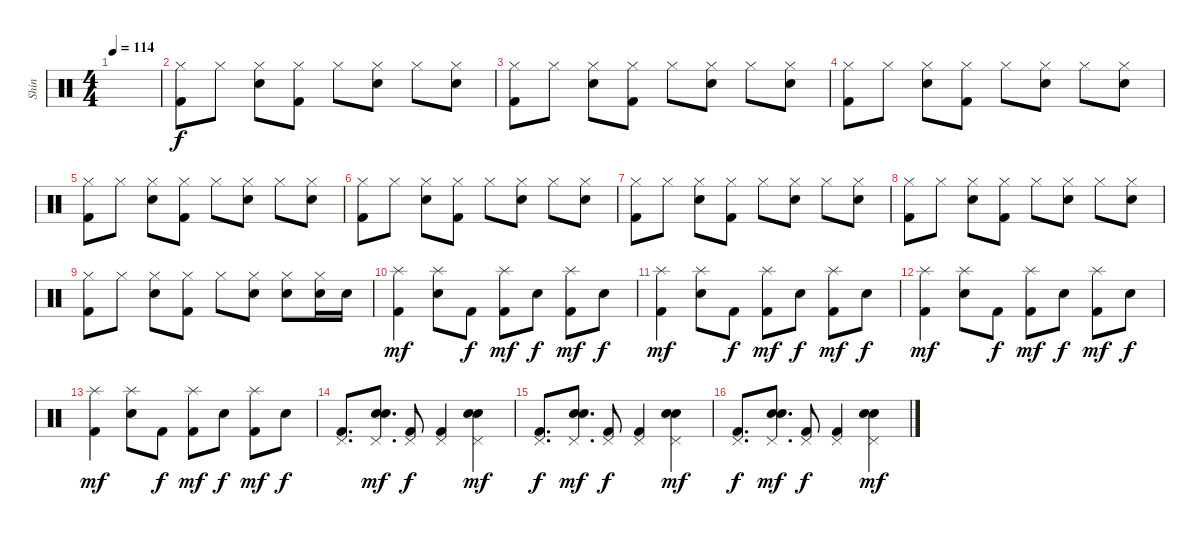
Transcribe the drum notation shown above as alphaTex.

\track ("Shin" "Shin") {instrument percussion}
\staff {score}
\articulation defaults
\ts (4 4)
\tempo 114
\clef neutral
\ks c
|
("Hi-Hat (closed)" "Kick (hit) 2").8 "Hi-Hat (closed)".8 ("Hi-Hat (closed)" "Electric Snare (hit)").8 ("Hi-Hat (closed)" "Kick (hit) 2").8 "Hi-Hat (closed)".8 ("Hi-Hat (closed)" "Electric Snare (hit)").8 "Hi-Hat (closed)".8 ("Hi-Hat (closed)" "Electric Snare (hit)").8 |
("Hi-Hat (closed)" "Kick (hit) 2").8 "Hi-Hat (closed)".8 ("Hi-Hat (closed)" "Electric Snare (hit)").8 ("Hi-Hat (closed)" "Kick (hit) 2").8 "Hi-Hat (closed)".8 ("Hi-Hat (closed)" "Electric Snare (hit)").8 "Hi-Hat (closed)".8 ("Hi-Hat (closed)" "Electric Snare (hit)").8 |
("Hi-Hat (closed)" "Kick (hit) 2").8 "Hi-Hat (closed)".8 ("Hi-Hat (closed)" "Electric Snare (hit)").8 ("Hi-Hat (closed)" "Kick (hit) 2").8 "Hi-Hat (closed)".8 ("Hi-Hat (closed)" "Electric Snare (hit)").8 "Hi-Hat (closed)".8 ("Hi-Hat (closed)" "Electric Snare (hit)").8 |
("Hi-Hat (closed)" "Kick (hit) 2").8 "Hi-Hat (closed)".8 ("Hi-Hat (closed)" "Electric Snare (hit)").8 ("Hi-Hat (closed)" "Kick (hit) 2").8 "Hi-Hat (closed)".8 ("Hi-Hat (closed)" "Electric Snare (hit)").8 "Hi-Hat (closed)".8 ("Hi-Hat (closed)" "Electric Snare (hit)").8 |
("Hi-Hat (closed)" "Kick (hit) 2").8 "Hi-Hat (closed)".8 ("Hi-Hat (closed)" "Electric Snare (hit)").8 ("Hi-Hat (closed)" "Kick (hit) 2").8 "Hi-Hat (closed)".8 ("Hi-Hat (closed)" "Electric Snare (hit)").8 "Hi-Hat (closed)".8 ("Hi-Hat (closed)" "Electric Snare (hit)").8 |
("Hi-Hat (closed)" "Kick (hit) 2").8 "Hi-Hat (closed)".8 ("Hi-Hat (closed)" "Electric Snare (hit)").8 ("Hi-Hat (closed)" "Kick (hit) 2").8 "Hi-Hat (closed)".8 ("Hi-Hat (closed)" "Electric Snare (hit)").8 "Hi-Hat (closed)".8 ("Hi-Hat (closed)" "Electric Snare (hit)").8 |
("Hi-Hat (closed)" "Kick (hit) 2").8 "Hi-Hat (closed)".8 ("Hi-Hat (closed)" "Electric Snare (hit)").8 ("Hi-Hat (closed)" "Kick (hit) 2").8 "Hi-Hat (closed)".8 ("Hi-Hat (closed)" "Electric Snare (hit)").8 "Hi-Hat (closed)".8 ("Hi-Hat (closed)" "Electric Snare (hit)").8 |
("Hi-Hat (closed)" "Kick (hit) 2").8 "Hi-Hat (closed)".8 ("Hi-Hat (closed)" "Electric Snare (hit)").8 ("Hi-Hat (closed)" "Kick (hit) 2").8 "Hi-Hat (closed)".8 ("Hi-Hat (closed)" "Electric Snare (hit)").8 ("Hi-Hat (closed)" "Electric Snare (hit)").8 ("Hi-Hat (closed)" "Electric Snare (hit)").16 "Electric Snare (hit)".16 |
("Splash (hit)" "Kick (hit) 2").4{dy mf} ("Splash (hit)" "Electric Snare (hit)").8 "Kick (hit) 2".8{dy f} ("Splash (hit)" "Kick (hit) 2").8{dy mf} "Electric Snare (hit)".8{dy f} ("Splash (hit)" "Kick (hit) 2").8{dy mf} "Electric Snare (hit)".8{dy f} |
("Splash (hit)" "Kick (hit) 2").4{dy mf} ("Splash (hit)" "Electric Snare (hit)").8 "Kick (hit) 2".8{dy f} ("Splash (hit)" "Kick (hit) 2").8{dy mf} "Electric Snare (hit)".8{dy f} ("Splash (hit)" "Kick (hit) 2").8{dy mf} "Electric Snare (hit)".8{dy f} |
("Splash (hit)" "Kick (hit) 2").4{dy mf} ("Splash (hit)" "Electric Snare (hit)").8 "Kick (hit) 2".8{dy f} ("Splash (hit)" "Kick (hit) 2").8{dy mf} "Electric Snare (hit)".8{dy f} ("Splash (hit)" "Kick (hit) 2").8{dy mf} "Electric Snare (hit)".8{dy f} |
("Splash (hit)" "Kick (hit) 2").4{dy mf} ("Splash (hit)" "Electric Snare (hit)").8 "Kick (hit) 2".8{dy f} ("Splash (hit)" "Kick (hit) 2").8{dy mf} "Electric Snare (hit)".8{dy f} ("Splash (hit)" "Kick (hit) 2").8{dy mf} "Electric Snare (hit)".8{dy f} |
("Pedal Hi-Hat (hit)" "Kick (hit) 2").8{d} ("Pedal Hi-Hat (hit)" "Hand Clap (hit)" "Electric Snare (hit)").8{d dy mf} ("Pedal Hi-Hat (hit)" "Kick (hit) 2").8{dy f} ("Pedal Hi-Hat (hit)" "Kick (hit) 2").4 ("Pedal Hi-Hat (hit)" "Hand Clap (hit)" "Electric Snare (hit)").4{dy mf} |
("Pedal Hi-Hat (hit)" "Kick (hit) 2").8{d dy f} ("Pedal Hi-Hat (hit)" "Hand Clap (hit)" "Electric Snare (hit)").8{d dy mf} ("Pedal Hi-Hat (hit)" "Kick (hit) 2").8{dy f} ("Pedal Hi-Hat (hit)" "Kick (hit) 2").4 ("Pedal Hi-Hat (hit)" "Hand Clap (hit)" "Electric Snare (hit)").4{dy mf} |
("Pedal Hi-Hat (hit)" "Kick (hit) 2").8{d dy f} ("Pedal Hi-Hat (hit)" "Hand Clap (hit)" "Electric Snare (hit)").8{d dy mf} ("Pedal Hi-Hat (hit)" "Kick (hit) 2").8{dy f} ("Pedal Hi-Hat (hit)" "Kick (hit) 2").4 ("Pedal Hi-Hat (hit)" "Hand Clap (hit)" "Electric Snare (hit)").4{dy mf}
